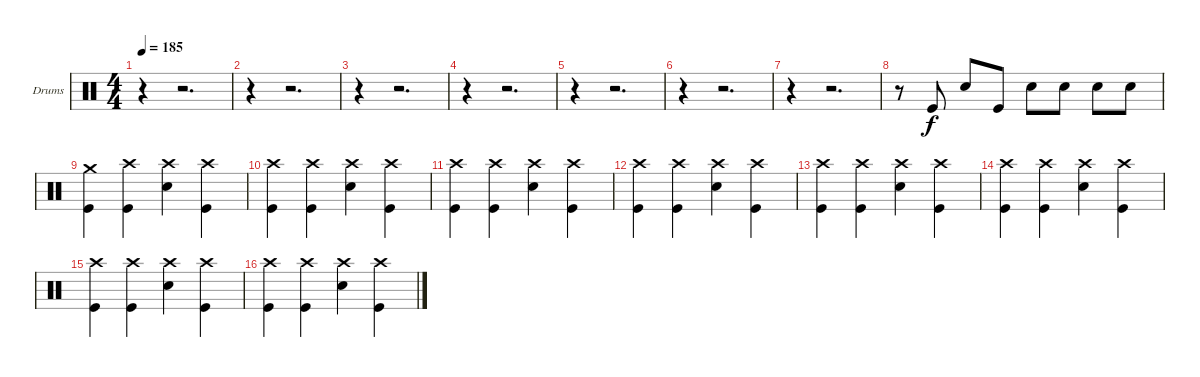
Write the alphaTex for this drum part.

\defaultSystemsLayout 4
\bracketExtendMode groupsimilarinstruments
\firstSystemTrackNameOrientation horizontal
\otherSystemsTrackNameOrientation horizontal
\track ("Chuck Comeau" "Drums") {instrument percussion}
\staff {score}
\articulation defaults
\ts (4 4)
\tempo 185
\clef neutral
\scale
0.333333
\ks c
r.4{dy f} r.2{d} |
\scale
0.333333 r.4 r.2{d} |
\scale
0.333333 r.4 r.2{d} |
\scale
0.333333 r.4 r.2{d} |
\scale
0.333333 r.4 r.2{d} |
\scale
0.333333 r.4 r.2{d} |
\scale
0.333333 r.4 r.2{d} |
\scale
0.333333 r.8 "Kick (hit)".8 "Snare (hit) 2".8 "Kick (hit)".8 "Snare (hit) 2".8 "Snare (hit) 2".8 "Snare (hit) 2".8 "Snare (hit) 2".8 |
\scale
0.333333 ("Crash medium (hit)" "Kick (hit)").4 ("Crash high (hit)" "Kick (hit)").4 ("Crash high (hit)" "Snare (hit) 2").4 ("Crash high (hit)" "Kick (hit)").4 |
\scale
0.333333 ("Crash high (hit)" "Kick (hit)").4 ("Crash high (hit)" "Kick (hit)").4 ("Crash high (hit)" "Snare (hit) 2").4 ("Crash high (hit)" "Kick (hit)").4 |
\scale
0.333333 ("Crash high (hit)" "Kick (hit)").4 ("Crash high (hit)" "Kick (hit)").4 ("Crash high (hit)" "Snare (hit) 2").4 ("Crash high (hit)" "Kick (hit)").4 |
\scale
0.333333 ("Crash high (hit)" "Kick (hit)").4 ("Crash high (hit)" "Kick (hit)").4 ("Crash high (hit)" "Snare (hit) 2").4 ("Crash high (hit)" "Kick (hit)").4 |
\scale
0.333333 ("Crash high (hit)" "Kick (hit)").4 ("Crash high (hit)" "Kick (hit)").4 ("Crash high (hit)" "Snare (hit) 2").4 ("Crash high (hit)" "Kick (hit)").4 |
\scale
0.333333 ("Crash high (hit)" "Kick (hit)").4 ("Crash high (hit)" "Kick (hit)").4 ("Crash high (hit)" "Snare (hit) 2").4 ("Crash high (hit)" "Kick (hit)").4 |
\scale
0.333333 ("Crash high (hit)" "Kick (hit)").4 ("Crash high (hit)" "Kick (hit)").4 ("Crash high (hit)" "Snare (hit) 2").4 ("Crash high (hit)" "Kick (hit)").4 |
\scale
0.333333 ("Crash high (hit)" "Kick (hit)").4 ("Crash high (hit)" "Kick (hit)").4 ("Crash high (hit)" "Snare (hit) 2").4 ("Crash high (hit)" "Kick (hit)").4
